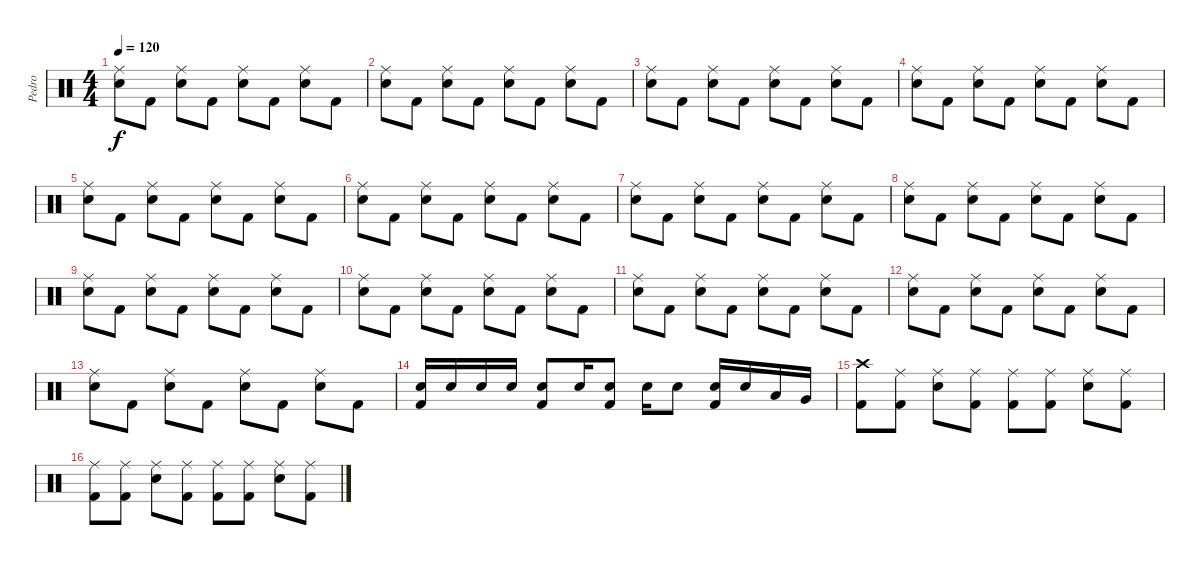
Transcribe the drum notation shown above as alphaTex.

\track ("Pedro" "Pedro") {instrument percussion}
\staff {score}
\articulation defaults
\ts (4 4)
\tempo 120
\clef neutral
\ks c
("Ride (middle)" "Snare (hit) 2").8{dy f} "Kick (hit) 2".8 ("Ride (middle)" "Snare (hit) 2").8 "Kick (hit) 2".8 ("Ride (middle)" "Snare (hit) 2").8 "Kick (hit) 2".8 ("Ride (middle)" "Snare (hit) 2").8 "Kick (hit) 2".8 |
("Ride (middle)" "Snare (hit) 2").8 "Kick (hit) 2".8 ("Ride (middle)" "Snare (hit) 2").8 "Kick (hit) 2".8 ("Ride (middle)" "Snare (hit) 2").8 "Kick (hit) 2".8 ("Ride (middle)" "Snare (hit) 2").8 "Kick (hit) 2".8 |
("Ride (middle)" "Snare (hit) 2").8 "Kick (hit) 2".8 ("Ride (middle)" "Snare (hit) 2").8 "Kick (hit) 2".8 ("Ride (middle)" "Snare (hit) 2").8 "Kick (hit) 2".8 ("Ride (middle)" "Snare (hit) 2").8 "Kick (hit) 2".8 |
("Ride (middle)" "Snare (hit) 2").8 "Kick (hit) 2".8 ("Ride (middle)" "Snare (hit) 2").8 "Kick (hit) 2".8 ("Ride (middle)" "Snare (hit) 2").8 "Kick (hit) 2".8 ("Ride (middle)" "Snare (hit) 2").8 "Kick (hit) 2".8 |
("Ride (middle)" "Snare (hit) 2").8 "Kick (hit) 2".8 ("Ride (middle)" "Snare (hit) 2").8 "Kick (hit) 2".8 ("Ride (middle)" "Snare (hit) 2").8 "Kick (hit) 2".8 ("Ride (middle)" "Snare (hit) 2").8 "Kick (hit) 2".8 |
("Ride (middle)" "Snare (hit) 2").8 "Kick (hit) 2".8 ("Ride (middle)" "Snare (hit) 2").8 "Kick (hit) 2".8 ("Ride (middle)" "Snare (hit) 2").8 "Kick (hit) 2".8 ("Ride (middle)" "Snare (hit) 2").8 "Kick (hit) 2".8 |
("Ride (middle)" "Snare (hit) 2").8 "Kick (hit) 2".8 ("Ride (middle)" "Snare (hit) 2").8 "Kick (hit) 2".8 ("Ride (middle)" "Snare (hit) 2").8 "Kick (hit) 2".8 ("Ride (middle)" "Snare (hit) 2").8 "Kick (hit) 2".8 |
("Ride (middle)" "Snare (hit) 2").8 "Kick (hit) 2".8 ("Ride (middle)" "Snare (hit) 2").8 "Kick (hit) 2".8 ("Ride (middle)" "Snare (hit) 2").8 "Kick (hit) 2".8 ("Ride (middle)" "Snare (hit) 2").8 "Kick (hit) 2".8 |
("Ride (middle)" "Snare (hit) 2").8 "Kick (hit) 2".8 ("Ride (middle)" "Snare (hit) 2").8 "Kick (hit) 2".8 ("Ride (middle)" "Snare (hit) 2").8 "Kick (hit) 2".8 ("Ride (middle)" "Snare (hit) 2").8 "Kick (hit) 2".8 |
("Ride (middle)" "Snare (hit) 2").8 "Kick (hit) 2".8 ("Ride (middle)" "Snare (hit) 2").8 "Kick (hit) 2".8 ("Ride (middle)" "Snare (hit) 2").8 "Kick (hit) 2".8 ("Ride (middle)" "Snare (hit) 2").8 "Kick (hit) 2".8 |
("Ride (middle)" "Snare (hit) 2").8 "Kick (hit) 2".8 ("Ride (middle)" "Snare (hit) 2").8 "Kick (hit) 2".8 ("Ride (middle)" "Snare (hit) 2").8 "Kick (hit) 2".8 ("Ride (middle)" "Snare (hit) 2").8 "Kick (hit) 2".8 |
("Ride (middle)" "Snare (hit) 2").8 "Kick (hit) 2".8 ("Ride (middle)" "Snare (hit) 2").8 "Kick (hit) 2".8 ("Ride (middle)" "Snare (hit) 2").8 "Kick (hit) 2".8 ("Ride (middle)" "Snare (hit) 2").8 "Kick (hit) 2".8 |
("Ride (middle)" "Snare (hit) 2").8 "Kick (hit) 2".8 ("Ride (middle)" "Snare (hit) 2").8 "Kick (hit) 2".8 ("Ride (middle)" "Snare (hit) 2").8 "Kick (hit) 2".8 ("Ride (middle)" "Snare (hit) 2").8 "Kick (hit) 2".8 |
("Kick (hit) 2" "Snare (hit) 2").16 "Snare (hit) 2".16 "Snare (hit) 2".16 "Snare (hit) 2".16 ("Kick (hit) 2" "Snare (hit) 2").8 "Snare (hit) 2".16 ("Kick (hit) 2" "Snare (hit) 2").8 "Snare (hit) 2".16 "Snare (hit) 2".8 ("Kick (hit) 2" "Snare (hit) 2").16 "Snare (hit) 2".16 "Low Tom (hit)".16 "Very Low Tom (hit)".16 |
("Crash high (hit)" "Kick (hit) 2").8 ("Ride (middle)" "Kick (hit) 2").8 ("Ride (middle)" "Snare (hit) 2").8 ("Ride (middle)" "Kick (hit) 2").8 ("Ride (middle)" "Kick (hit) 2").8 ("Ride (middle)" "Kick (hit) 2").8 ("Ride (middle)" "Snare (hit) 2").8 ("Ride (middle)" "Kick (hit) 2").8 |
("Ride (middle)" "Kick (hit) 2").8 ("Ride (middle)" "Kick (hit) 2").8 ("Ride (middle)" "Snare (hit) 2").8 ("Ride (middle)" "Kick (hit) 2").8 ("Ride (middle)" "Kick (hit) 2").8 ("Ride (middle)" "Kick (hit) 2").8 ("Ride (middle)" "Snare (hit) 2").8 ("Ride (middle)" "Kick (hit) 2").8
